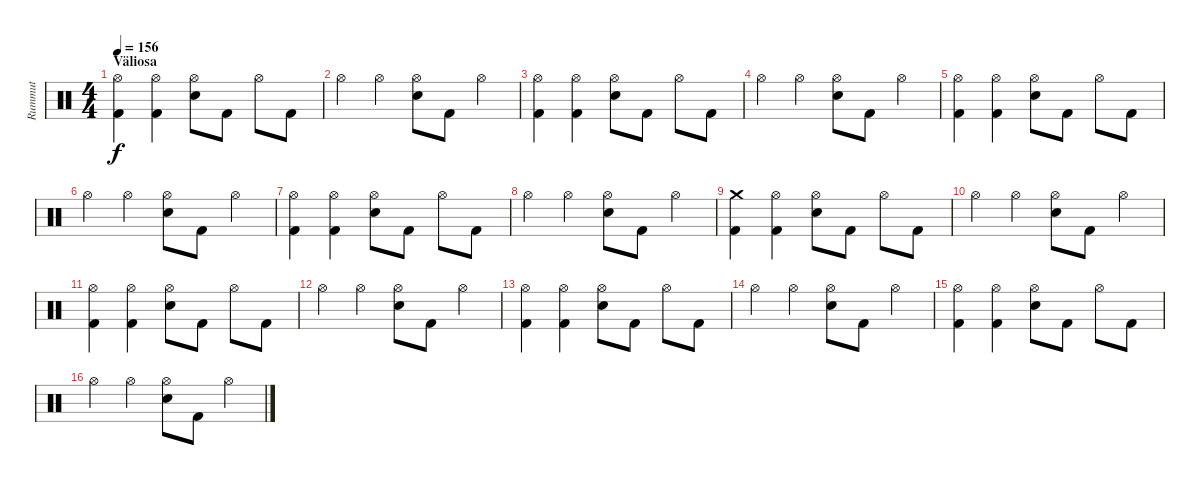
\track ("Rummut" "Rummut") {instrument percussion}
\staff {score}
\articulation defaults
\ts (4 4)
\section ("" "Väliosa")
\tempo 156
\clef neutral
\ks c
("Kick (hit) 2" "Hi-Hat (open)").4{dy f} ("Kick (hit) 2" "Hi-Hat (open)").4 ("Hi-Hat (open)" "Snare (hit) 2").8 "Kick (hit) 2".8 "Hi-Hat (open)".8 "Kick (hit) 2".8 |
"Hi-Hat (open)".4 "Hi-Hat (open)".4 ("Hi-Hat (open)" "Snare (hit) 2").8 "Kick (hit) 2".8 "Hi-Hat (open)".4 |
("Kick (hit) 2" "Hi-Hat (open)").4 ("Kick (hit) 2" "Hi-Hat (open)").4 ("Hi-Hat (open)" "Snare (hit) 2").8 "Kick (hit) 2".8 "Hi-Hat (open)".8 "Kick (hit) 2".8 |
"Hi-Hat (open)".4 "Hi-Hat (open)".4 ("Hi-Hat (open)" "Snare (hit) 2").8 "Kick (hit) 2".8 "Hi-Hat (open)".4 |
("Kick (hit) 2" "Hi-Hat (open)").4 ("Kick (hit) 2" "Hi-Hat (open)").4 ("Hi-Hat (open)" "Snare (hit) 2").8 "Kick (hit) 2".8 "Hi-Hat (open)".8 "Kick (hit) 2".8 |
"Hi-Hat (open)".4 "Hi-Hat (open)".4 ("Hi-Hat (open)" "Snare (hit) 2").8 "Kick (hit) 2".8 "Hi-Hat (open)".4 |
("Kick (hit) 2" "Hi-Hat (open)").4 ("Kick (hit) 2" "Hi-Hat (open)").4 ("Hi-Hat (open)" "Snare (hit) 2").8 "Kick (hit) 2".8 "Hi-Hat (open)".8 "Kick (hit) 2".8 |
"Hi-Hat (open)".4 "Hi-Hat (open)".4 ("Hi-Hat (open)" "Snare (hit) 2").8 "Kick (hit) 2".8 "Hi-Hat (open)".4 |
("Kick (hit) 2" "Crash medium (hit)").4 ("Kick (hit) 2" "Hi-Hat (open)").4 ("Hi-Hat (open)" "Snare (hit) 2").8 "Kick (hit) 2".8 "Hi-Hat (open)".8 "Kick (hit) 2".8 |
"Hi-Hat (open)".4 "Hi-Hat (open)".4 ("Hi-Hat (open)" "Snare (hit) 2").8 "Kick (hit) 2".8 "Hi-Hat (open)".4 |
("Kick (hit) 2" "Hi-Hat (open)").4 ("Kick (hit) 2" "Hi-Hat (open)").4 ("Hi-Hat (open)" "Snare (hit) 2").8 "Kick (hit) 2".8 "Hi-Hat (open)".8 "Kick (hit) 2".8 |
"Hi-Hat (open)".4 "Hi-Hat (open)".4 ("Hi-Hat (open)" "Snare (hit) 2").8 "Kick (hit) 2".8 "Hi-Hat (open)".4 |
("Kick (hit) 2" "Hi-Hat (open)").4 ("Kick (hit) 2" "Hi-Hat (open)").4 ("Hi-Hat (open)" "Snare (hit) 2").8 "Kick (hit) 2".8 "Hi-Hat (open)".8 "Kick (hit) 2".8 |
"Hi-Hat (open)".4 "Hi-Hat (open)".4 ("Hi-Hat (open)" "Snare (hit) 2").8 "Kick (hit) 2".8 "Hi-Hat (open)".4 |
("Kick (hit) 2" "Hi-Hat (open)").4 ("Kick (hit) 2" "Hi-Hat (open)").4 ("Hi-Hat (open)" "Snare (hit) 2").8 "Kick (hit) 2".8 "Hi-Hat (open)".8 "Kick (hit) 2".8 |
"Hi-Hat (open)".4 "Hi-Hat (open)".4 ("Hi-Hat (open)" "Snare (hit) 2").8 "Kick (hit) 2".8 "Hi-Hat (open)".4
